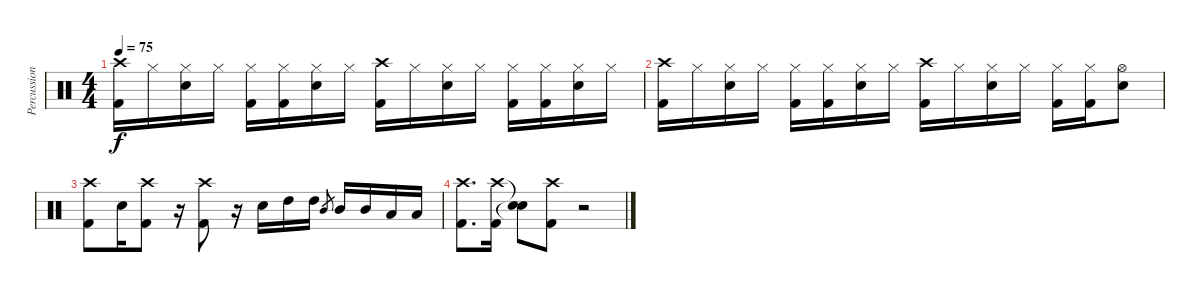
\track ("Percussion" "Percussion") {instrument percussion}
\staff {score}
\articulation defaults
\ts (4 4)
\tempo 75
\clef neutral
\ks c
("Crash high (hit)" "Kick (hit) 2").16{dy f} "Hi-Hat (closed)".16 ("Hi-Hat (closed)" "Electric Snare (hit)").16 "Hi-Hat (closed)".16 ("Hi-Hat (closed)" "Kick (hit) 2").16 ("Hi-Hat (closed)" "Kick (hit) 2").16 ("Hi-Hat (closed)" "Electric Snare (hit)").16 "Hi-Hat (closed)".16 ("Crash high (hit)" "Kick (hit) 2").16 "Hi-Hat (closed)".16 ("Hi-Hat (closed)" "Electric Snare (hit)").16 "Hi-Hat (closed)".16 ("Hi-Hat (closed)" "Kick (hit) 2").16 ("Hi-Hat (closed)" "Kick (hit) 2").16 ("Hi-Hat (closed)" "Electric Snare (hit)").16 "Hi-Hat (closed)".16 |
("Crash high (hit)" "Kick (hit) 2").16 "Hi-Hat (closed)".16 ("Hi-Hat (closed)" "Electric Snare (hit)").16 "Hi-Hat (closed)".16 ("Hi-Hat (closed)" "Kick (hit) 2").16 ("Hi-Hat (closed)" "Kick (hit) 2").16 ("Hi-Hat (closed)" "Electric Snare (hit)").16 "Hi-Hat (closed)".16 ("Crash high (hit)" "Kick (hit) 2").16 "Hi-Hat (closed)".16 ("Hi-Hat (closed)" "Electric Snare (hit)").16 "Hi-Hat (closed)".16 ("Hi-Hat (closed)" "Kick (hit) 2").16 ("Hi-Hat (closed)" "Kick (hit) 2").16 ("Hi-Hat (open)" "Electric Snare (hit)").8 |
("Crash high (hit)" "Kick (hit) 2").8 "Electric Snare (hit)".16 ("Crash high (hit)" "Kick (hit) 2").8 r.16 ("Crash high (hit)" "Kick (hit) 2").8 r.16 "Electric Snare (hit)".16 "High Tom (hit)".16 "High Tom (hit)".16 "Mid Tom (hit)".8{gr} "Mid Tom (hit)".16 "Mid Tom (hit)".16 "Low Tom (hit)".16 "Low Tom (hit)".16 |
("Crash high (hit)" "Kick (hit) 2").8{d} ("Crash high (hit)" "Kick (hit) 2").16 ("Snare (hit)"{t} "Snare (hit)"{t}).8 ("Crash high (hit)" "Kick (hit) 2").8 r.2
